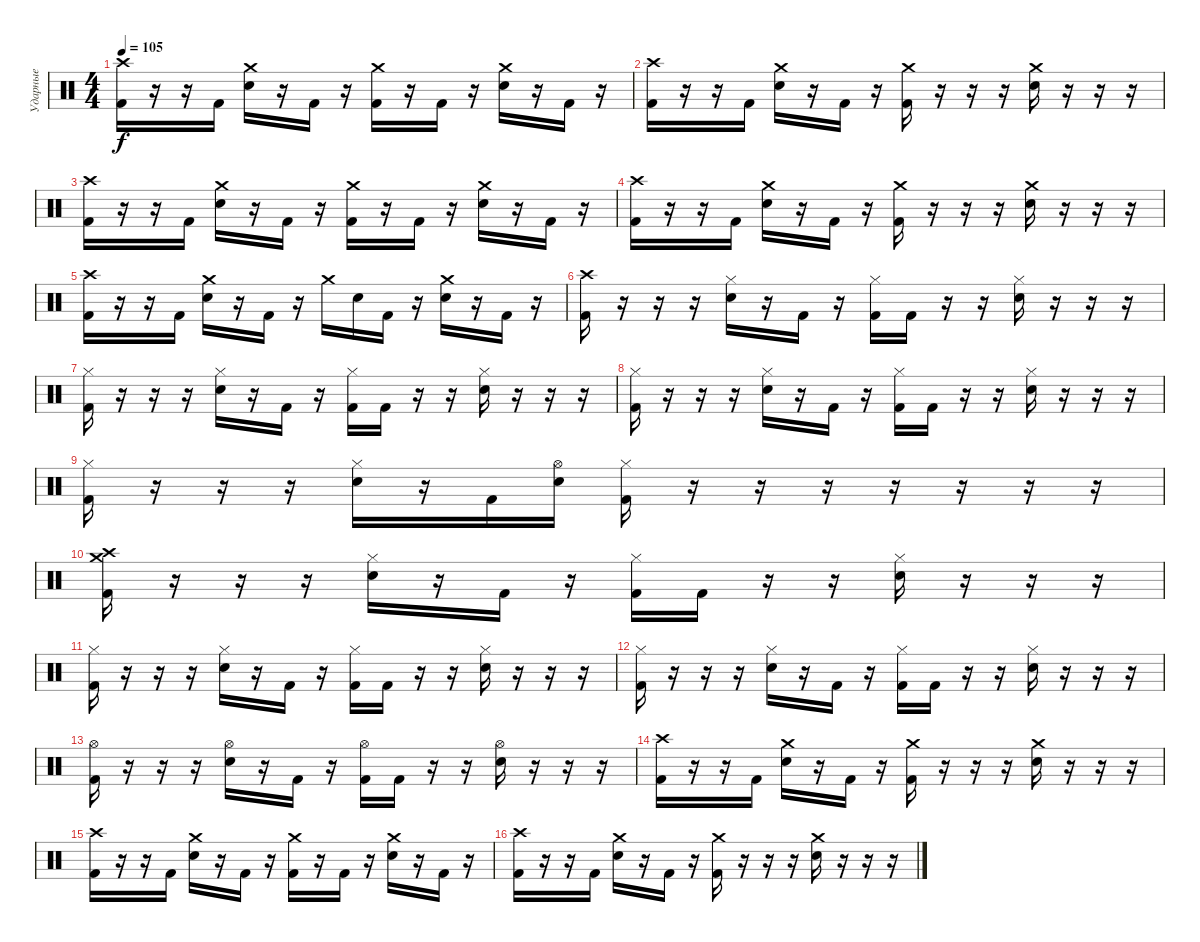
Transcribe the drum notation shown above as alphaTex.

\track ("Ударные" "Ударные") {instrument percussion}
\staff {score}
\articulation defaults
\ts (4 4)
\tempo 105
\clef neutral
\ks c
("Crash high (hit)" "Kick (hit) 2").16{dy f} r.16 r.16 "Kick (hit) 2".16 ("Crash medium (hit)" "Electric Snare (hit)").16 r.16 "Kick (hit) 2".16 r.16 ("Crash medium (hit)" "Kick (hit) 2").16 r.16 "Kick (hit) 2".16 r.16 ("Crash medium (hit)" "Electric Snare (hit)").16 r.16 "Kick (hit) 2".16 r.16 |
("Crash high (hit)" "Kick (hit) 2").16 r.16 r.16 "Kick (hit) 2".16 ("Crash medium (hit)" "Electric Snare (hit)").16 r.16 "Kick (hit) 2".16 r.16 ("Crash medium (hit)" "Kick (hit) 2").16 r.16 r.16 r.16 ("Crash medium (hit)" "Electric Snare (hit)").16 r.16 r.16 r.16 |
("Crash high (hit)" "Kick (hit) 2").16 r.16 r.16 "Kick (hit) 2".16 ("Crash medium (hit)" "Electric Snare (hit)").16 r.16 "Kick (hit) 2".16 r.16 ("Crash medium (hit)" "Kick (hit) 2").16 r.16 "Kick (hit) 2".16 r.16 ("Crash medium (hit)" "Electric Snare (hit)").16 r.16 "Kick (hit) 2".16 r.16 |
("Crash high (hit)" "Kick (hit) 2").16 r.16 r.16 "Kick (hit) 2".16 ("Crash medium (hit)" "Electric Snare (hit)").16 r.16 "Kick (hit) 2".16 r.16 ("Crash medium (hit)" "Kick (hit) 2").16 r.16 r.16 r.16 ("Crash medium (hit)" "Electric Snare (hit)").16 r.16 r.16 r.16 |
("Crash high (hit)" "Kick (hit) 2").16 r.16 r.16 "Kick (hit) 2".16 ("Crash medium (hit)" "Electric Snare (hit)").16 r.16 "Kick (hit) 2".16 r.16 "Crash medium (hit)".16 "Electric Snare (hit)".16 "Kick (hit) 2".16 r.16 ("Crash medium (hit)" "Electric Snare (hit)").16 r.16 "Kick (hit) 2".16 r.16 |
("Crash high (hit)" "Kick (hit) 2").16 r.16 r.16 r.16 ("Hi-Hat (closed)" "Electric Snare (hit)").16 r.16 "Kick (hit) 2".16 r.16 ("Hi-Hat (closed)" "Kick (hit) 2").16 "Kick (hit) 2".16 r.16 r.16 ("Hi-Hat (closed)" "Electric Snare (hit)").16 r.16 r.16 r.16 |
("Hi-Hat (closed)" "Kick (hit) 2").16 r.16 r.16 r.16 ("Hi-Hat (closed)" "Electric Snare (hit)").16 r.16 "Kick (hit) 2".16 r.16 ("Hi-Hat (closed)" "Kick (hit) 2").16 "Kick (hit) 2".16 r.16 r.16 ("Hi-Hat (closed)" "Electric Snare (hit)").16 r.16 r.16 r.16 |
("Hi-Hat (closed)" "Kick (hit) 2").16 r.16 r.16 r.16 ("Hi-Hat (closed)" "Electric Snare (hit)").16 r.16 "Kick (hit) 2".16 r.16 ("Hi-Hat (closed)" "Kick (hit) 2").16 "Kick (hit) 2".16 r.16 r.16 ("Hi-Hat (closed)" "Electric Snare (hit)").16 r.16 r.16 r.16 |
("Hi-Hat (closed)" "Kick (hit) 2").16 r.16 r.16 r.16 ("Hi-Hat (closed)" "Electric Snare (hit)").16 r.16 "Kick (hit) 2".16 ("Hi-Hat (open)" "Electric Snare (hit)").16 ("Hi-Hat (closed)" "Kick (hit) 2").16 r.16 r.16 r.16 r.16 r.16 r.16 r.16 |
("Crash high (hit)" "Kick (hit) 2" "Crash medium (hit)").16 r.16 r.16 r.16 ("Hi-Hat (closed)" "Electric Snare (hit)").16 r.16 "Kick (hit) 2".16 r.16 ("Hi-Hat (closed)" "Kick (hit) 2").16 "Kick (hit) 2".16 r.16 r.16 ("Hi-Hat (closed)" "Electric Snare (hit)").16 r.16 r.16 r.16 |
("Hi-Hat (closed)" "Kick (hit) 2").16 r.16 r.16 r.16 ("Hi-Hat (closed)" "Electric Snare (hit)").16 r.16 "Kick (hit) 2".16 r.16 ("Hi-Hat (closed)" "Kick (hit) 2").16 "Kick (hit) 2".16 r.16 r.16 ("Hi-Hat (closed)" "Electric Snare (hit)").16 r.16 r.16 r.16 |
("Hi-Hat (closed)" "Kick (hit) 2").16 r.16 r.16 r.16 ("Hi-Hat (closed)" "Electric Snare (hit)").16 r.16 "Kick (hit) 2".16 r.16 ("Hi-Hat (closed)" "Kick (hit) 2").16 "Kick (hit) 2".16 r.16 r.16 ("Hi-Hat (closed)" "Electric Snare (hit)").16 r.16 r.16 r.16 |
("Hi-Hat (open)" "Kick (hit) 2").16 r.16 r.16 r.16 ("Hi-Hat (open)" "Electric Snare (hit)").16 r.16 "Kick (hit) 2".16 r.16 ("Hi-Hat (open)" "Kick (hit) 2").16 "Kick (hit) 2".16 r.16 r.16 ("Hi-Hat (open)" "Electric Snare (hit)").16 r.16 r.16 r.16 |
("Crash high (hit)" "Kick (hit) 2").16 r.16 r.16 "Kick (hit) 2".16 ("Crash medium (hit)" "Electric Snare (hit)").16 r.16 "Kick (hit) 2".16 r.16 ("Crash medium (hit)" "Kick (hit) 2").16 r.16 r.16 r.16 ("Crash medium (hit)" "Electric Snare (hit)").16 r.16 r.16 r.16 |
("Crash high (hit)" "Kick (hit) 2").16 r.16 r.16 "Kick (hit) 2".16 ("Crash medium (hit)" "Electric Snare (hit)").16 r.16 "Kick (hit) 2".16 r.16 ("Crash medium (hit)" "Kick (hit) 2").16 r.16 "Kick (hit) 2".16 r.16 ("Crash medium (hit)" "Electric Snare (hit)").16 r.16 "Kick (hit) 2".16 r.16 |
("Crash high (hit)" "Kick (hit) 2").16 r.16 r.16 "Kick (hit) 2".16 ("Crash medium (hit)" "Electric Snare (hit)").16 r.16 "Kick (hit) 2".16 r.16 ("Crash medium (hit)" "Kick (hit) 2").16 r.16 r.16 r.16 ("Crash medium (hit)" "Electric Snare (hit)").16 r.16 r.16 r.16
